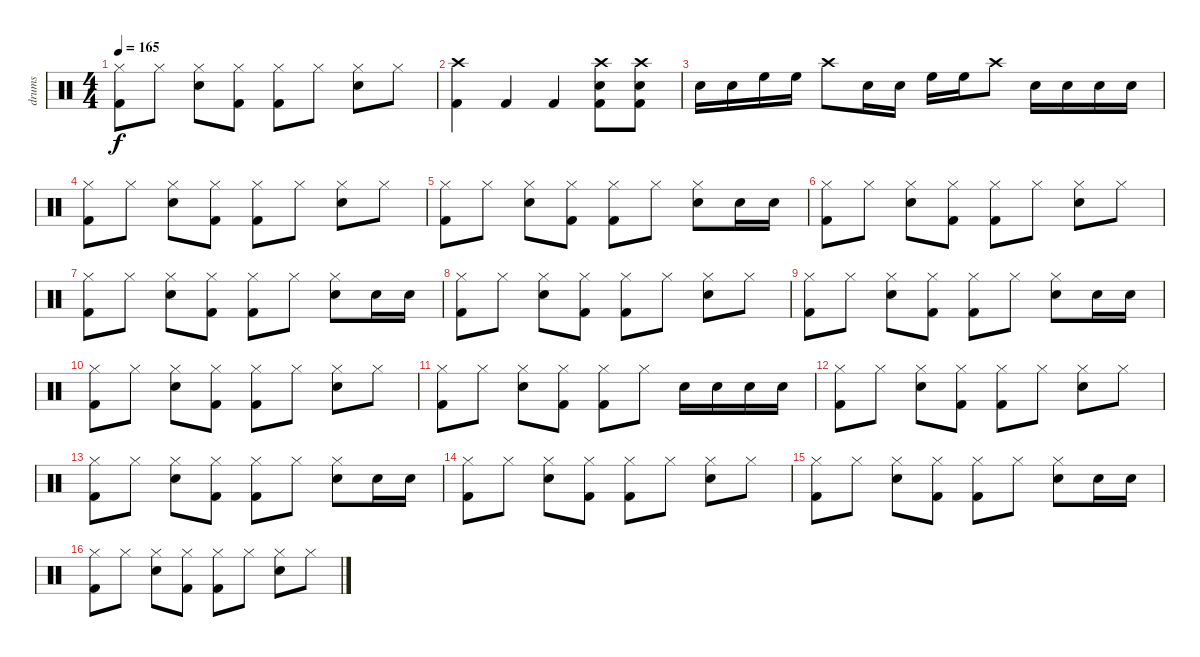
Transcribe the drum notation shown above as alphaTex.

\track ("drums" "drums") {instrument percussion}
\staff {score}
\articulation defaults
\ts (4 4)
\tempo 165
\clef neutral
\ks c
("Hi-Hat (closed)" "Kick (hit) 2").8{dy f} "Hi-Hat (closed)".8 ("Snare (hit) 2" "Hi-Hat (closed)").8 ("Hi-Hat (closed)" "Kick (hit) 2").8 ("Hi-Hat (closed)" "Kick (hit) 2").8 "Hi-Hat (closed)".8 ("Snare (hit) 2" "Hi-Hat (closed)").8 "Hi-Hat (closed)".8 |
("Crash high (hit)" "Kick (hit) 2").4 "Kick (hit) 2".4 "Kick (hit) 2".4 ("Crash high (hit)" "Snare (hit) 2" "Kick (hit) 2").8 ("Crash high (hit)" "Snare (hit) 2" "Kick (hit) 2").8 |
"Snare (hit) 2".16 "Snare (hit) 2".16 "High Floor Tom (hit)".16 "High Floor Tom (hit)".16 "Crash high (hit)".8 "Snare (hit) 2".16 "Snare (hit) 2".16 "High Floor Tom (hit)".16 "High Floor Tom (hit)".16 "Crash high (hit)".8 "Snare (hit) 2".16 "Snare (hit) 2".16 "Snare (hit) 2".16 "Snare (hit) 2".16 |
("Hi-Hat (closed)" "Kick (hit) 2").8 "Hi-Hat (closed)".8 ("Snare (hit) 2" "Hi-Hat (closed)").8 ("Hi-Hat (closed)" "Kick (hit) 2").8 ("Hi-Hat (closed)" "Kick (hit) 2").8 "Hi-Hat (closed)".8 ("Snare (hit) 2" "Hi-Hat (closed)").8 "Hi-Hat (closed)".8 |
("Hi-Hat (closed)" "Kick (hit) 2").8 "Hi-Hat (closed)".8 ("Snare (hit) 2" "Hi-Hat (closed)").8 ("Hi-Hat (closed)" "Kick (hit) 2").8 ("Hi-Hat (closed)" "Kick (hit) 2").8 "Hi-Hat (closed)".8 ("Snare (hit) 2" "Hi-Hat (closed)").8 "Snare (hit) 2".16 "Snare (hit) 2".16 |
("Hi-Hat (closed)" "Kick (hit) 2").8 "Hi-Hat (closed)".8 ("Snare (hit) 2" "Hi-Hat (closed)").8 ("Hi-Hat (closed)" "Kick (hit) 2").8 ("Hi-Hat (closed)" "Kick (hit) 2").8 "Hi-Hat (closed)".8 ("Snare (hit) 2" "Hi-Hat (closed)").8 "Hi-Hat (closed)".8 |
("Hi-Hat (closed)" "Kick (hit) 2").8 "Hi-Hat (closed)".8 ("Snare (hit) 2" "Hi-Hat (closed)").8 ("Hi-Hat (closed)" "Kick (hit) 2").8 ("Hi-Hat (closed)" "Kick (hit) 2").8 "Hi-Hat (closed)".8 ("Snare (hit) 2" "Hi-Hat (closed)").8 "Snare (hit) 2".16 "Snare (hit) 2".16 |
("Hi-Hat (closed)" "Kick (hit) 2").8 "Hi-Hat (closed)".8 ("Snare (hit) 2" "Hi-Hat (closed)").8 ("Hi-Hat (closed)" "Kick (hit) 2").8 ("Hi-Hat (closed)" "Kick (hit) 2").8 "Hi-Hat (closed)".8 ("Snare (hit) 2" "Hi-Hat (closed)").8 "Hi-Hat (closed)".8 |
("Hi-Hat (closed)" "Kick (hit) 2").8 "Hi-Hat (closed)".8 ("Snare (hit) 2" "Hi-Hat (closed)").8 ("Hi-Hat (closed)" "Kick (hit) 2").8 ("Hi-Hat (closed)" "Kick (hit) 2").8 "Hi-Hat (closed)".8 ("Snare (hit) 2" "Hi-Hat (closed)").8 "Snare (hit) 2".16 "Snare (hit) 2".16 |
("Hi-Hat (closed)" "Kick (hit) 2").8 "Hi-Hat (closed)".8 ("Snare (hit) 2" "Hi-Hat (closed)").8 ("Hi-Hat (closed)" "Kick (hit) 2").8 ("Hi-Hat (closed)" "Kick (hit) 2").8 "Hi-Hat (closed)".8 ("Snare (hit) 2" "Hi-Hat (closed)").8 "Hi-Hat (closed)".8 |
("Hi-Hat (closed)" "Kick (hit) 2").8 "Hi-Hat (closed)".8 ("Snare (hit) 2" "Hi-Hat (closed)").8 ("Hi-Hat (closed)" "Kick (hit) 2").8 ("Hi-Hat (closed)" "Kick (hit) 2").8 "Hi-Hat (closed)".8 "Snare (hit) 2".16 "Snare (hit) 2".16 "Snare (hit) 2".16 "Snare (hit) 2".16 |
("Hi-Hat (closed)" "Kick (hit) 2").8 "Hi-Hat (closed)".8 ("Snare (hit) 2" "Hi-Hat (closed)").8 ("Hi-Hat (closed)" "Kick (hit) 2").8 ("Hi-Hat (closed)" "Kick (hit) 2").8 "Hi-Hat (closed)".8 ("Snare (hit) 2" "Hi-Hat (closed)").8 "Hi-Hat (closed)".8 |
("Hi-Hat (closed)" "Kick (hit) 2").8 "Hi-Hat (closed)".8 ("Snare (hit) 2" "Hi-Hat (closed)").8 ("Hi-Hat (closed)" "Kick (hit) 2").8 ("Hi-Hat (closed)" "Kick (hit) 2").8 "Hi-Hat (closed)".8 ("Snare (hit) 2" "Hi-Hat (closed)").8 "Snare (hit) 2".16 "Snare (hit) 2".16 |
("Hi-Hat (closed)" "Kick (hit) 2").8 "Hi-Hat (closed)".8 ("Snare (hit) 2" "Hi-Hat (closed)").8 ("Hi-Hat (closed)" "Kick (hit) 2").8 ("Hi-Hat (closed)" "Kick (hit) 2").8 "Hi-Hat (closed)".8 ("Snare (hit) 2" "Hi-Hat (closed)").8 "Hi-Hat (closed)".8 |
("Hi-Hat (closed)" "Kick (hit) 2").8 "Hi-Hat (closed)".8 ("Snare (hit) 2" "Hi-Hat (closed)").8 ("Hi-Hat (closed)" "Kick (hit) 2").8 ("Hi-Hat (closed)" "Kick (hit) 2").8 "Hi-Hat (closed)".8 ("Snare (hit) 2" "Hi-Hat (closed)").8 "Snare (hit) 2".16 "Snare (hit) 2".16 |
("Hi-Hat (closed)" "Kick (hit) 2").8 "Hi-Hat (closed)".8 ("Snare (hit) 2" "Hi-Hat (closed)").8 ("Hi-Hat (closed)" "Kick (hit) 2").8 ("Hi-Hat (closed)" "Kick (hit) 2").8 "Hi-Hat (closed)".8 ("Snare (hit) 2" "Hi-Hat (closed)").8 "Hi-Hat (closed)".8
